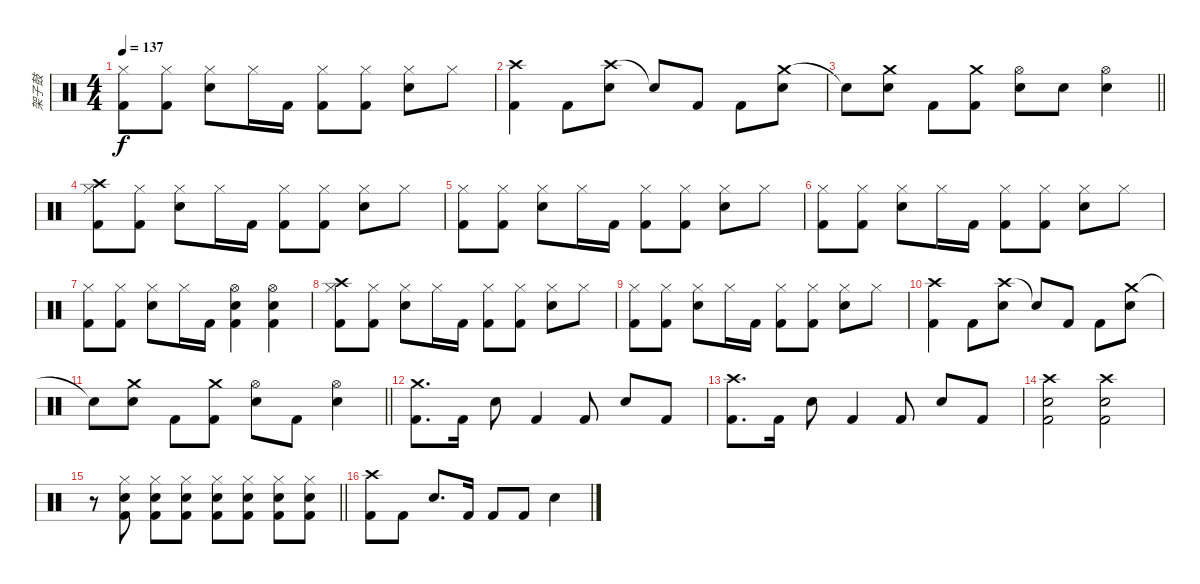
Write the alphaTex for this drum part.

\track ("架子鼓" "架子鼓") {instrument percussion}
\staff {score}
\articulation defaults
\ts (4 4)
\tempo 137
\clef neutral
\ks c
("Hi-Hat (closed)" "Kick (hit) 2").8{dy f} ("Hi-Hat (closed)" "Kick (hit) 2").8 ("Hi-Hat (closed)" "Snare (hit) 2").8 "Hi-Hat (closed)".16 "Kick (hit) 2".16 ("Hi-Hat (closed)" "Kick (hit) 2").8 ("Hi-Hat (closed)" "Kick (hit) 2").8 ("Hi-Hat (closed)" "Snare (hit) 2").8 "Hi-Hat (closed)".8 |
("Crash high (hit)" "Kick (hit) 2").4 "Kick (hit) 2".8 ("Crash high (hit)" "Snare (hit) 2").8 "Snare (hit)"{t}.8 "Kick (hit) 2".8 "Kick (hit) 2".8 ("Crash medium (hit)" "Snare (hit) 2").8 |
\barLineRight lightlight "Snare (hit)"{t}.8
("Crash medium (hit)" "Snare (hit) 2").8 "Kick (hit) 2".8 ("Crash medium (hit)" "Kick (hit) 2").8 ("Hi-Hat (open)" "Snare (hit) 2").8 "Snare (hit) 2".8 ("Hi-Hat (open)" "Snare (hit) 2").4 |
("Hi-Hat (closed)" "Crash high (hit)" "Kick (hit) 2").8 ("Hi-Hat (closed)" "Kick (hit) 2").8 ("Hi-Hat (closed)" "Snare (hit) 2").8 "Hi-Hat (closed)".16 "Kick (hit) 2".16 ("Hi-Hat (closed)" "Kick (hit) 2").8 ("Hi-Hat (closed)" "Kick (hit) 2").8 ("Hi-Hat (closed)" "Snare (hit) 2").8 "Hi-Hat (closed)".8 |
("Hi-Hat (closed)" "Kick (hit) 2").8 ("Hi-Hat (closed)" "Kick (hit) 2").8 ("Hi-Hat (closed)" "Snare (hit) 2").8 "Hi-Hat (closed)".16 "Kick (hit) 2".16 ("Hi-Hat (closed)" "Kick (hit) 2").8 ("Hi-Hat (closed)" "Kick (hit) 2").8 ("Hi-Hat (closed)" "Snare (hit) 2").8 "Hi-Hat (closed)".8 |
("Hi-Hat (closed)" "Kick (hit) 2").8 ("Hi-Hat (closed)" "Kick (hit) 2").8 ("Hi-Hat (closed)" "Snare (hit) 2").8 "Hi-Hat (closed)".16 "Kick (hit) 2".16 ("Hi-Hat (closed)" "Kick (hit) 2").8 ("Hi-Hat (closed)" "Kick (hit) 2").8 ("Hi-Hat (closed)" "Snare (hit) 2").8 "Hi-Hat (closed)".8 |
("Hi-Hat (closed)" "Kick (hit) 2").8 ("Hi-Hat (closed)" "Kick (hit) 2").8 ("Hi-Hat (closed)" "Snare (hit) 2").8 "Hi-Hat (closed)".16 "Kick (hit) 2".16 ("Hi-Hat (open)" "Snare (hit) 2" "Kick (hit) 2").4 ("Hi-Hat (open)" "Snare (hit) 2" "Kick (hit) 2").4 |
("Hi-Hat (closed)" "Crash high (hit)" "Kick (hit) 2").8 ("Hi-Hat (closed)" "Kick (hit) 2").8 ("Hi-Hat (closed)" "Snare (hit) 2").8 "Hi-Hat (closed)".16 "Kick (hit) 2".16 ("Hi-Hat (closed)" "Kick (hit) 2").8 ("Hi-Hat (closed)" "Kick (hit) 2").8 ("Hi-Hat (closed)" "Snare (hit) 2").8 "Hi-Hat (closed)".8 |
("Hi-Hat (closed)" "Kick (hit) 2").8 ("Hi-Hat (closed)" "Kick (hit) 2").8 ("Hi-Hat (closed)" "Snare (hit) 2").8 "Hi-Hat (closed)".16 "Kick (hit) 2".16 ("Hi-Hat (closed)" "Kick (hit) 2").8 ("Hi-Hat (closed)" "Kick (hit) 2").8 ("Hi-Hat (closed)" "Snare (hit) 2").8 "Hi-Hat (closed)".8 |
("Crash high (hit)" "Kick (hit) 2").4 "Kick (hit) 2".8 ("Crash high (hit)" "Snare (hit) 2").8 "Snare (hit)"{t}.8 "Kick (hit) 2".8 "Kick (hit) 2".8 ("Crash medium (hit)" "Snare (hit) 2").8 |
\barLineRight lightlight "Snare (hit)"{t}.8
("Crash medium (hit)" "Snare (hit) 2").8 "Kick (hit) 2".8 ("Crash medium (hit)" "Kick (hit) 2").8 ("Hi-Hat (open)" "Snare (hit) 2").8 "Kick (hit) 2".8 ("Hi-Hat (open)" "Snare (hit) 2").4 |
("Crash medium (hit)" "Kick (hit) 2").8{d} "Kick (hit) 2".16 "Snare (hit) 2".8 "Kick (hit) 2".4 "Kick (hit) 2".8 "Snare (hit) 2".8 "Kick (hit) 2".8 |
("Crash high (hit)" "Kick (hit) 2").8{d} "Kick (hit) 2".16 "Snare (hit) 2".8 "Kick (hit) 2".4 "Kick (hit) 2".8 "Snare (hit) 2".8 "Kick (hit) 2".8 |
("Crash high (hit)" "Snare (hit) 2" "Kick (hit) 2").2 ("Crash high (hit)" "Snare (hit) 2" "Kick (hit) 2").2 |
\barLineRight lightlight
r.8 ("Hi-Hat (closed)" "Snare (hit) 2" "Kick (hit) 2").8 ("Hi-Hat (closed)" "Snare (hit) 2" "Kick (hit) 2").8 ("Hi-Hat (closed)" "Snare (hit) 2" "Kick (hit) 2").8 ("Hi-Hat (closed)" "Snare (hit) 2" "Kick (hit) 2").8 ("Hi-Hat (closed)" "Snare (hit) 2" "Kick (hit) 2").8 ("Hi-Hat (closed)" "Snare (hit) 2" "Kick (hit) 2").8 ("Hi-Hat (closed)" "Snare (hit) 2" "Kick (hit) 2").8 |
("Crash high (hit)" "Kick (hit) 2").8 "Kick (hit) 2".8 "Snare (hit) 2".8{d} "Kick (hit) 2".16 "Kick (hit) 2".8 "Kick (hit) 2".8 "Snare (hit) 2".4
